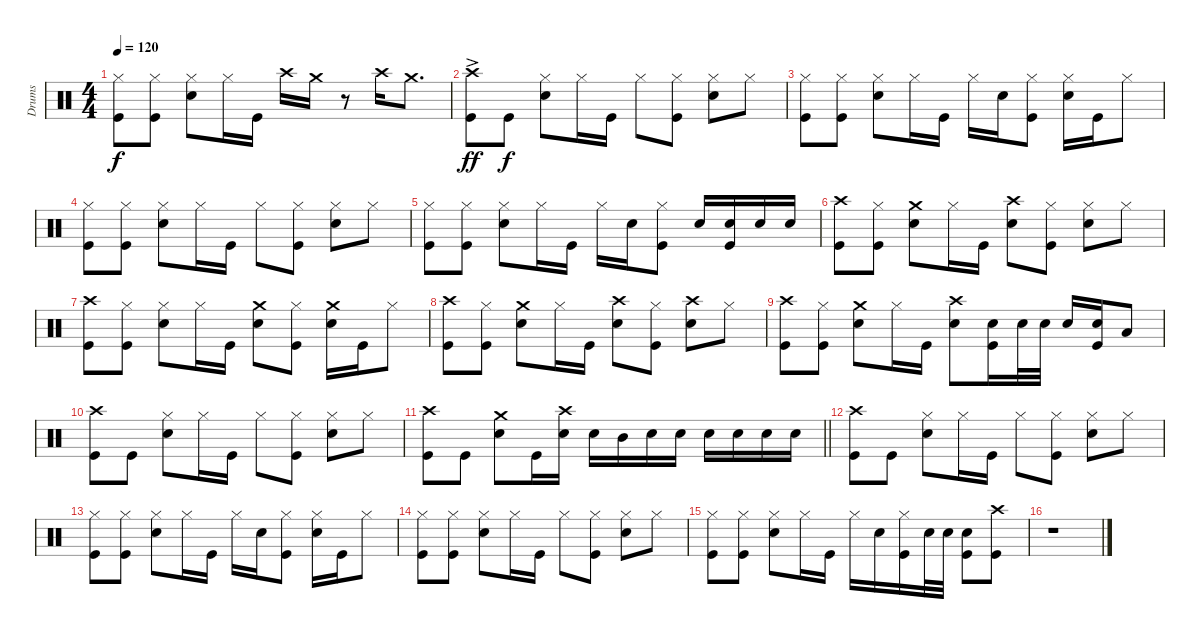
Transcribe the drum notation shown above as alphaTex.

\track ("Drums" "Drums") {instrument percussion}
\staff {score}
\articulation defaults
\ts (4 4)
\tempo 120
\clef neutral
\ks c
("Hi-Hat (closed)" "Kick (hit)").8{dy f} ("Hi-Hat (closed)" "Kick (hit)").8 ("Hi-Hat (closed)" "Snare (hit) 2").8 "Hi-Hat (closed)".16 "Kick (hit)".16 "Crash high (hit)".16 "Crash medium (hit)".16 r.8 "Crash high (hit)".16 "Crash medium (hit)".8{d} |
("Crash high (hit)"{ac} "Kick (hit)").8{dy ff} "Kick (hit)".8{dy f} ("Snare (hit) 2" "Hi-Hat (closed)").8 "Hi-Hat (closed)".16 "Kick (hit)".16 "Hi-Hat (closed)".8 ("Kick (hit)" "Hi-Hat (closed)").8 ("Snare (hit) 2" "Hi-Hat (closed)").8 "Hi-Hat (closed)".8 |
("Hi-Hat (closed)" "Kick (hit)").8 ("Hi-Hat (closed)" "Kick (hit)").8 ("Hi-Hat (closed)" "Snare (hit) 2").8 "Hi-Hat (closed)".16 "Kick (hit)".16 "Hi-Hat (closed)".16 "Snare (hit) 2".16 ("Hi-Hat (closed)" "Kick (hit)").8 ("Snare (hit) 2" "Hi-Hat (closed)").16 "Kick (hit)".16 "Hi-Hat (closed)".8 |
("Kick (hit)" "Hi-Hat (closed)").8 ("Kick (hit)" "Hi-Hat (closed)").8 ("Snare (hit) 2" "Hi-Hat (closed)").8 "Hi-Hat (closed)".16 "Kick (hit)".16 "Hi-Hat (closed)".8 ("Kick (hit)" "Hi-Hat (closed)").8 ("Snare (hit) 2" "Hi-Hat (closed)").8 "Hi-Hat (closed)".8 |
("Hi-Hat (closed)" "Kick (hit)").8 ("Hi-Hat (closed)" "Kick (hit)").8 ("Hi-Hat (closed)" "Snare (hit) 2").8 "Hi-Hat (closed)".16 "Kick (hit)".16 "Hi-Hat (closed)".16 "Snare (hit) 2".16 ("Hi-Hat (closed)" "Kick (hit)").8 "Snare (hit) 2".16 ("Kick (hit)" "Snare (hit) 2").16 "Snare (hit) 2".16 "Snare (hit) 2".16 |
("Crash high (hit)" "Kick (hit)").8 ("Kick (hit)" "Hi-Hat (closed)").8 ("Crash medium (hit)" "Snare (hit) 2").8 "Hi-Hat (closed)".16 "Kick (hit)".16 ("Crash high (hit)" "Snare (hit) 2").8 ("Hi-Hat (closed)" "Kick (hit)").8 ("Hi-Hat (closed)" "Snare (hit) 2").8 "Hi-Hat (closed)".8 |
("Crash high (hit)" "Kick (hit)").8 ("Kick (hit)" "Hi-Hat (closed)").8 ("Hi-Hat (closed)" "Snare (hit) 2").8 "Hi-Hat (closed)".16 "Kick (hit)".16 ("Crash medium (hit)" "Snare (hit) 2").8 ("Hi-Hat (closed)" "Kick (hit)").8 ("Crash medium (hit)" "Snare (hit) 2").16 "Kick (hit)".16 "Hi-Hat (closed)".8 |
("Crash high (hit)" "Kick (hit)").8 ("Kick (hit)" "Hi-Hat (closed)").8 ("Crash medium (hit)" "Snare (hit) 2").8 "Hi-Hat (closed)".16 "Kick (hit)".16 ("Crash high (hit)" "Snare (hit) 2").8 ("Hi-Hat (closed)" "Kick (hit)").8 ("Crash high (hit)" "Snare (hit) 2").8 "Hi-Hat (closed)".8 |
("Crash high (hit)" "Kick (hit)").8 ("Kick (hit)" "Hi-Hat (closed)").8 ("Crash medium (hit)" "Snare (hit) 2").8 "Hi-Hat (closed)".16 "Kick (hit)".16 ("Crash high (hit)" "Snare (hit) 2").8 ("Snare (hit) 2" "Kick (hit)").16 "Snare (hit) 2".32 "Snare (hit) 2".32 "Snare (hit) 2".16 ("Snare (hit) 2" "Kick (hit)").16 "Low Tom (hit)".8 |
("Crash high (hit)" "Kick (hit)").8 "Kick (hit)".8 ("Snare (hit) 2" "Hi-Hat (closed)").8 "Hi-Hat (closed)".16 "Kick (hit)".16 "Hi-Hat (closed)".8 ("Kick (hit)" "Hi-Hat (closed)").8 ("Snare (hit) 2" "Hi-Hat (closed)").8 "Hi-Hat (closed)".8 |
\barLineRight lightlight
("Crash high (hit)" "Kick (hit)").8 "Kick (hit)".8 ("Crash medium (hit)" "Snare (hit) 2").8 "Kick (hit)".16 ("Crash high (hit)" "Snare (hit) 2").16 "Snare (hit) 2".16 "Mid Tom (hit)".16 "Snare (hit) 2".16 "Snare (hit) 2".16 "Snare (hit) 2".16 "Snare (hit) 2".16 "Snare (hit) 2".16 "Snare (hit) 2".16 |
("Crash high (hit)" "Kick (hit)").8 "Kick (hit)".8 ("Snare (hit) 2" "Hi-Hat (closed)").8 "Hi-Hat (closed)".16 "Kick (hit)".16 "Hi-Hat (closed)".8 ("Kick (hit)" "Hi-Hat (closed)").8 ("Snare (hit) 2" "Hi-Hat (closed)").8 "Hi-Hat (closed)".8 |
("Hi-Hat (closed)" "Kick (hit)").8 ("Hi-Hat (closed)" "Kick (hit)").8 ("Hi-Hat (closed)" "Snare (hit) 2").8 "Hi-Hat (closed)".16 "Kick (hit)".16 "Hi-Hat (closed)".16 "Snare (hit) 2".16 ("Hi-Hat (closed)" "Kick (hit)").8 ("Snare (hit) 2" "Hi-Hat (closed)").16 "Kick (hit)".16 "Hi-Hat (closed)".8 |
("Kick (hit)" "Hi-Hat (closed)").8 ("Kick (hit)" "Hi-Hat (closed)").8 ("Snare (hit) 2" "Hi-Hat (closed)").8 "Hi-Hat (closed)".16 "Kick (hit)".16 "Hi-Hat (closed)".8 ("Kick (hit)" "Hi-Hat (closed)").8 ("Snare (hit) 2" "Hi-Hat (closed)").8 "Hi-Hat (closed)".8 |
("Kick (hit)" "Hi-Hat (closed)").8 ("Hi-Hat (closed)" "Kick (hit)").8 ("Hi-Hat (closed)" "Snare (hit) 2").8 "Hi-Hat (closed)".16 "Kick (hit)".16 "Hi-Hat (closed)".16 "Snare (hit) 2".16 ("Hi-Hat (closed)" "Kick (hit)").16 "Snare (hit) 2".32 "Snare (hit) 2".32 ("Snare (hit) 2" "Kick (hit)").8 ("Crash high (hit)" "Kick (hit)").8 |
r.1
